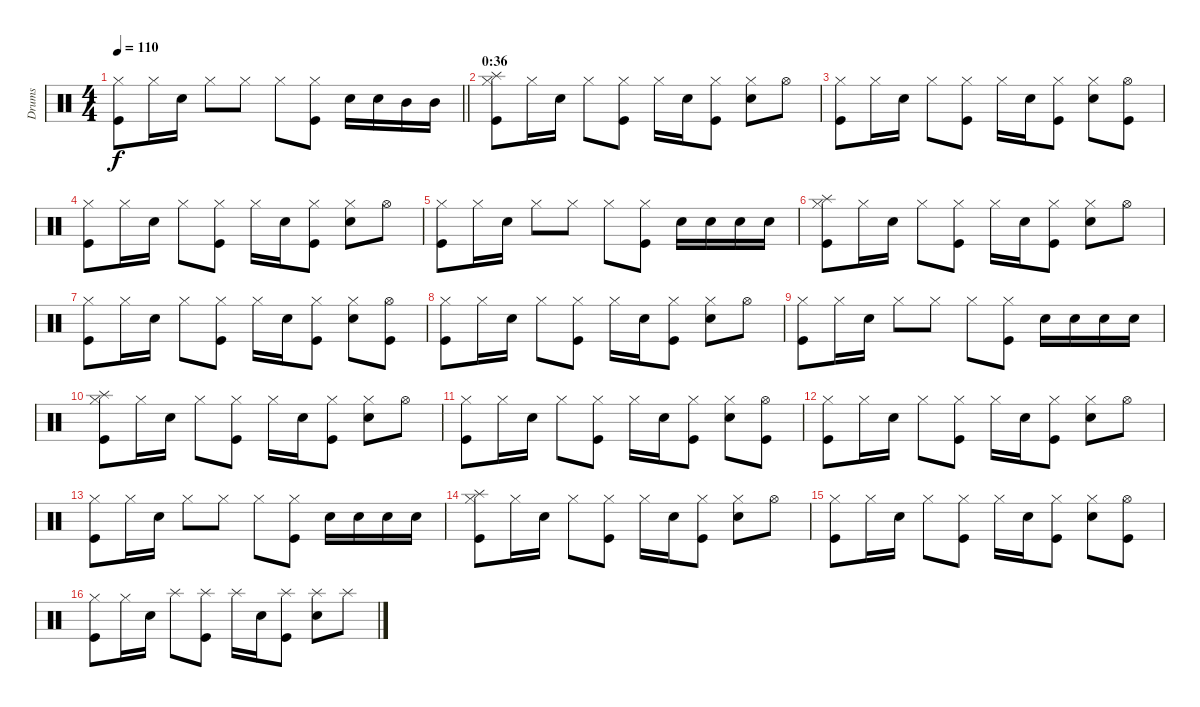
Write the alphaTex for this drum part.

\track ("Drums" "Drums") {instrument percussion}
\staff {score}
\articulation defaults
\ts (4 4)
\tempo 110
\clef neutral
\barLineRight lightlight
\ks c
("Hi-Hat (closed)" "Kick (hit)").8{dy f} "Hi-Hat (closed)".16 "Snare (hit) 2".16 "Hi-Hat (closed)".8 "Hi-Hat (closed)".8 "Hi-Hat (closed)".8 ("Hi-Hat (closed)" "Kick (hit)").8 "Snare (hit) 2".16 "Snare (hit) 2".16 "Mid Tom (hit)".16 "Mid Tom (hit)".16 |
\section ("" "0:36")
("Splash (hit)" "Hi-Hat (closed)" "Kick (hit)").8 "Hi-Hat (closed)".16 "Snare (hit) 2".16 "Hi-Hat (closed)".8 ("Hi-Hat (closed)" "Kick (hit)").8 "Hi-Hat (closed)".16 "Snare (hit) 2".16 ("Hi-Hat (closed)" "Kick (hit)").8 ("Hi-Hat (closed)" "Snare (hit) 2").8 "Hi-Hat (open)".8 |
("Hi-Hat (closed)" "Kick (hit)").8 "Hi-Hat (closed)".16 "Snare (hit) 2".16 "Hi-Hat (closed)".8 ("Hi-Hat (closed)" "Kick (hit)").8 "Hi-Hat (closed)".16 "Snare (hit) 2".16 ("Hi-Hat (closed)" "Kick (hit)").8 ("Hi-Hat (closed)" "Snare (hit) 2").8 ("Hi-Hat (open)" "Kick (hit)").8 |
("Hi-Hat (closed)" "Kick (hit)").8 "Hi-Hat (closed)".16 "Snare (hit) 2".16 "Hi-Hat (closed)".8 ("Hi-Hat (closed)" "Kick (hit)").8 "Hi-Hat (closed)".16 "Snare (hit) 2".16 ("Hi-Hat (closed)" "Kick (hit)").8 ("Hi-Hat (closed)" "Snare (hit) 2").8 "Hi-Hat (open)".8 |
("Hi-Hat (closed)" "Kick (hit)").8 "Hi-Hat (closed)".16 "Snare (hit) 2".16 "Hi-Hat (closed)".8 "Hi-Hat (closed)".8 "Hi-Hat (closed)".8 ("Hi-Hat (closed)" "Kick (hit)").8 "Snare (hit) 2".16 "Snare (hit) 2".16 "Snare (hit) 2".16 "Snare (hit) 2".16 |
("Splash (hit)" "Hi-Hat (closed)" "Kick (hit)").8 "Hi-Hat (closed)".16 "Snare (hit) 2".16 "Hi-Hat (closed)".8 ("Hi-Hat (closed)" "Kick (hit)").8 "Hi-Hat (closed)".16 "Snare (hit) 2".16 ("Hi-Hat (closed)" "Kick (hit)").8 ("Hi-Hat (closed)" "Snare (hit) 2").8 "Hi-Hat (open)".8 |
("Hi-Hat (closed)" "Kick (hit)").8 "Hi-Hat (closed)".16 "Snare (hit) 2".16 "Hi-Hat (closed)".8 ("Hi-Hat (closed)" "Kick (hit)").8 "Hi-Hat (closed)".16 "Snare (hit) 2".16 ("Hi-Hat (closed)" "Kick (hit)").8 ("Hi-Hat (closed)" "Snare (hit) 2").8 ("Hi-Hat (open)" "Kick (hit)").8 |
("Hi-Hat (closed)" "Kick (hit)").8 "Hi-Hat (closed)".16 "Snare (hit) 2".16 "Hi-Hat (closed)".8 ("Hi-Hat (closed)" "Kick (hit)").8 "Hi-Hat (closed)".16 "Snare (hit) 2".16 ("Hi-Hat (closed)" "Kick (hit)").8 ("Hi-Hat (closed)" "Snare (hit) 2").8 "Hi-Hat (open)".8 |
("Hi-Hat (closed)" "Kick (hit)").8 "Hi-Hat (closed)".16 "Snare (hit) 2".16 "Hi-Hat (closed)".8 "Hi-Hat (closed)".8 "Hi-Hat (closed)".8 ("Hi-Hat (closed)" "Kick (hit)").8 "Snare (hit) 2".16 "Snare (hit) 2".16 "Snare (hit) 2".16 "Snare (hit) 2".16 |
("Splash (hit)" "Hi-Hat (closed)" "Kick (hit)").8 "Hi-Hat (closed)".16 "Snare (hit) 2".16 "Hi-Hat (closed)".8 ("Hi-Hat (closed)" "Kick (hit)").8 "Hi-Hat (closed)".16 "Snare (hit) 2".16 ("Hi-Hat (closed)" "Kick (hit)").8 ("Hi-Hat (closed)" "Snare (hit) 2").8 "Hi-Hat (open)".8 |
("Hi-Hat (closed)" "Kick (hit)").8 "Hi-Hat (closed)".16 "Snare (hit) 2".16 "Hi-Hat (closed)".8 ("Hi-Hat (closed)" "Kick (hit)").8 "Hi-Hat (closed)".16 "Snare (hit) 2".16 ("Hi-Hat (closed)" "Kick (hit)").8 ("Hi-Hat (closed)" "Snare (hit) 2").8 ("Hi-Hat (open)" "Kick (hit)").8 |
("Hi-Hat (closed)" "Kick (hit)").8 "Hi-Hat (closed)".16 "Snare (hit) 2".16 "Hi-Hat (closed)".8 ("Hi-Hat (closed)" "Kick (hit)").8 "Hi-Hat (closed)".16 "Snare (hit) 2".16 ("Hi-Hat (closed)" "Kick (hit)").8 ("Hi-Hat (closed)" "Snare (hit) 2").8 "Hi-Hat (open)".8 |
("Hi-Hat (closed)" "Kick (hit)").8 "Hi-Hat (closed)".16 "Snare (hit) 2".16 "Hi-Hat (closed)".8 "Hi-Hat (closed)".8 "Hi-Hat (closed)".8 ("Hi-Hat (closed)" "Kick (hit)").8 "Snare (hit) 2".16 "Snare (hit) 2".16 "Snare (hit) 2".16 "Snare (hit) 2".16 |
("Splash (hit)" "Hi-Hat (closed)" "Kick (hit)").8 "Hi-Hat (closed)".16 "Snare (hit) 2".16 "Hi-Hat (closed)".8 ("Hi-Hat (closed)" "Kick (hit)").8 "Hi-Hat (closed)".16 "Snare (hit) 2".16 ("Hi-Hat (closed)" "Kick (hit)").8 ("Hi-Hat (closed)" "Snare (hit) 2").8 "Hi-Hat (open)".8 |
("Hi-Hat (closed)" "Kick (hit)").8 "Hi-Hat (closed)".16 "Snare (hit) 2".16 "Hi-Hat (closed)".8 ("Hi-Hat (closed)" "Kick (hit)").8 "Hi-Hat (closed)".16 "Snare (hit) 2".16 ("Hi-Hat (closed)" "Kick (hit)").8 ("Hi-Hat (closed)" "Snare (hit) 2").8 ("Hi-Hat (open)" "Kick (hit)").8 |
("Hi-Hat (closed)" "Kick (hit)").8 "Hi-Hat (closed)".16 "Snare (hit) 2".16 "Splash (hit)".8 ("Splash (hit)" "Kick (hit)").8 "Splash (hit)".16 "Snare (hit) 2".16 ("Splash (hit)" "Kick (hit)").8 ("Splash (hit)" "Snare (hit) 2").8 "Splash (hit)".8
